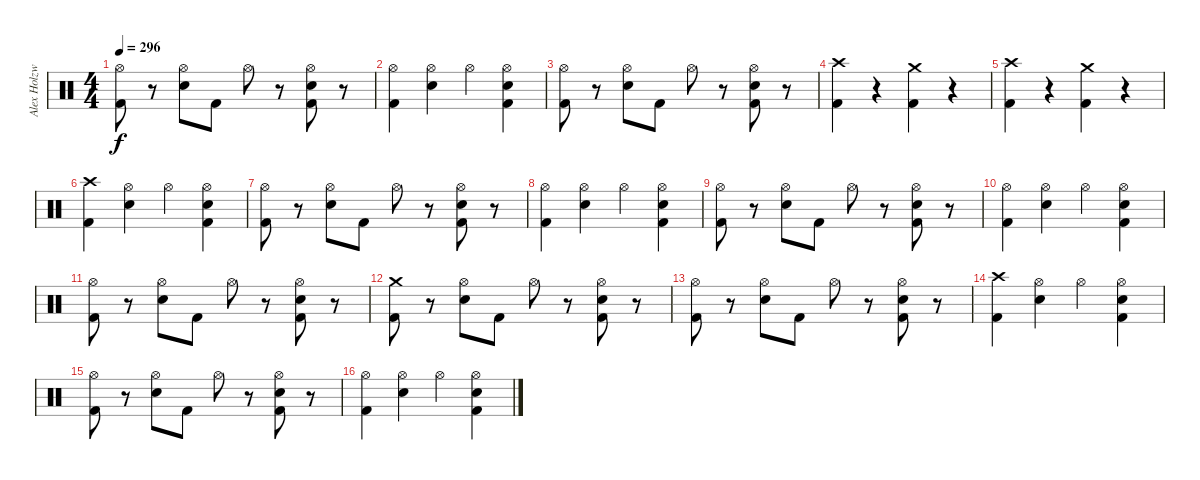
\track ("Alex Holzwarth" "Alex Holzw") {instrument percussion}
\staff {score}
\articulation defaults
\ts (4 4)
\tempo 296
\clef neutral
\ks c
("Hi-Hat (open)" "Kick (hit) 2").8{dy f} r.8 ("Hi-Hat (open)" "Snare (hit) 2").8 "Kick (hit) 2".8 "Hi-Hat (open)".8 r.8 ("Hi-Hat (open)" "Snare (hit) 2" "Kick (hit) 2").8 r.8 |
("Hi-Hat (open)" "Kick (hit) 2").4 ("Hi-Hat (open)" "Snare (hit) 2").4 "Hi-Hat (open)".4 ("Hi-Hat (open)" "Snare (hit) 2" "Kick (hit) 2").4 |
("Hi-Hat (open)" "Kick (hit) 2").8 r.8 ("Hi-Hat (open)" "Snare (hit) 2").8 "Kick (hit) 2".8 "Hi-Hat (open)".8 r.8 ("Hi-Hat (open)" "Snare (hit) 2" "Kick (hit) 2").8 r.8 |
("Crash high (hit)" "Kick (hit) 2").4 r.4 ("Crash medium (hit)" "Kick (hit) 2").4 r.4 |
("Crash high (hit)" "Kick (hit) 2").4 r.4 ("Crash medium (hit)" "Kick (hit) 2").4 r.4 |
("Crash high (hit)" "Kick (hit) 2").4 ("Hi-Hat (open)" "Snare (hit) 2").4 "Hi-Hat (open)".4 ("Hi-Hat (open)" "Snare (hit) 2" "Kick (hit) 2").4 |
("Hi-Hat (open)" "Kick (hit) 2").8 r.8 ("Hi-Hat (open)" "Snare (hit) 2").8 "Kick (hit) 2".8 "Hi-Hat (open)".8 r.8 ("Hi-Hat (open)" "Snare (hit) 2" "Kick (hit) 2").8 r.8 |
("Hi-Hat (open)" "Kick (hit) 2").4 ("Hi-Hat (open)" "Snare (hit) 2").4 "Hi-Hat (open)".4 ("Hi-Hat (open)" "Snare (hit) 2" "Kick (hit) 2").4 |
("Hi-Hat (open)" "Kick (hit) 2").8 r.8 ("Hi-Hat (open)" "Snare (hit) 2").8 "Kick (hit) 2".8 "Hi-Hat (open)".8 r.8 ("Hi-Hat (open)" "Snare (hit) 2" "Kick (hit) 2").8 r.8 |
("Hi-Hat (open)" "Kick (hit) 2").4 ("Hi-Hat (open)" "Snare (hit) 2").4 "Hi-Hat (open)".4 ("Hi-Hat (open)" "Snare (hit) 2" "Kick (hit) 2").4 |
("Hi-Hat (open)" "Kick (hit) 2").8 r.8 ("Hi-Hat (open)" "Snare (hit) 2").8 "Kick (hit) 2".8 "Hi-Hat (open)".8 r.8 ("Hi-Hat (open)" "Snare (hit) 2" "Kick (hit) 2").8 r.8 |
("Crash medium (hit)" "Kick (hit) 2").8 r.8 ("Hi-Hat (open)" "Snare (hit) 2").8 "Kick (hit) 2".8 "Hi-Hat (open)".8 r.8 ("Hi-Hat (open)" "Snare (hit) 2" "Kick (hit) 2").8 r.8 |
("Hi-Hat (open)" "Kick (hit) 2").8 r.8 ("Hi-Hat (open)" "Snare (hit) 2").8 "Kick (hit) 2".8 "Hi-Hat (open)".8 r.8 ("Hi-Hat (open)" "Snare (hit) 2" "Kick (hit) 2").8 r.8 |
("Crash high (hit)" "Kick (hit) 2").4 ("Hi-Hat (open)" "Snare (hit) 2").4 "Hi-Hat (open)".4 ("Hi-Hat (open)" "Snare (hit) 2" "Kick (hit) 2").4 |
("Hi-Hat (open)" "Kick (hit) 2").8 r.8 ("Hi-Hat (open)" "Snare (hit) 2").8 "Kick (hit) 2".8 "Hi-Hat (open)".8 r.8 ("Hi-Hat (open)" "Snare (hit) 2" "Kick (hit) 2").8 r.8 |
("Hi-Hat (open)" "Kick (hit) 2").4 ("Hi-Hat (open)" "Snare (hit) 2").4 "Hi-Hat (open)".4 ("Hi-Hat (open)" "Snare (hit) 2" "Kick (hit) 2").4
